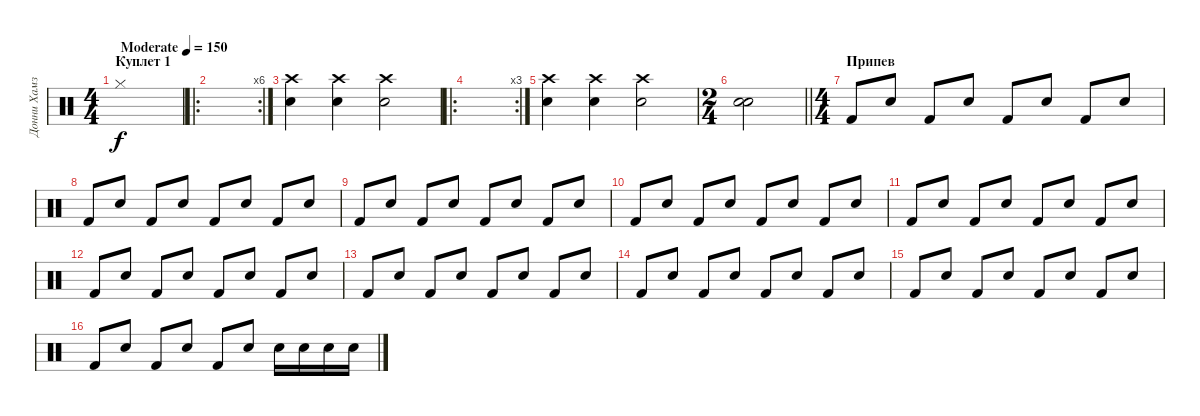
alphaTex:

\track ("Донни Хамзик" "Донни Хамз") {instrument percussion}
\staff {score}
\articulation defaults
\ts (4 4)
\section ("" "Куплет 1")
\tempo (150 "Moderate")
\clef neutral
\ks c "Hi-Hat (closed)".1{dy f}
|
\ro
\rc 6
|
("Crash high (hit)" "Snare (hit) 2").4 ("Crash high (hit)" "Snare (hit) 2").4 ("Crash high (hit)" "Snare (hit) 2").2 |
\ro
\rc 3
|
("Crash high (hit)" "Snare (hit) 2").4 ("Crash high (hit)" "Snare (hit) 2").4 ("Crash high (hit)" "Snare (hit) 2").2 |
\ts (2 4)
\barLineRight lightlight
("Electric Snare (hit)" "Electric Snare (hit)").2 |
\ts (4 4)
\section ("" "Припев")
"Kick (hit) 2".8 "Snare (hit) 2".8 "Kick (hit) 2".8 "Snare (hit) 2".8 "Kick (hit) 2".8 "Snare (hit) 2".8 "Kick (hit) 2".8 "Snare (hit) 2".8 |
"Kick (hit) 2".8 "Snare (hit) 2".8 "Kick (hit) 2".8 "Snare (hit) 2".8 "Kick (hit) 2".8 "Snare (hit) 2".8 "Kick (hit) 2".8 "Snare (hit) 2".8 |
"Kick (hit) 2".8 "Snare (hit) 2".8 "Kick (hit) 2".8 "Snare (hit) 2".8 "Kick (hit) 2".8 "Snare (hit) 2".8 "Kick (hit) 2".8 "Snare (hit) 2".8 |
"Kick (hit) 2".8 "Snare (hit) 2".8 "Kick (hit) 2".8 "Snare (hit) 2".8 "Kick (hit) 2".8 "Snare (hit) 2".8 "Kick (hit) 2".8 "Snare (hit) 2".8 |
"Kick (hit) 2".8 "Snare (hit) 2".8 "Kick (hit) 2".8 "Snare (hit) 2".8 "Kick (hit) 2".8 "Snare (hit) 2".8 "Kick (hit) 2".8 "Snare (hit) 2".8 |
"Kick (hit) 2".8 "Snare (hit) 2".8 "Kick (hit) 2".8 "Snare (hit) 2".8 "Kick (hit) 2".8 "Snare (hit) 2".8 "Kick (hit) 2".8 "Snare (hit) 2".8 |
"Kick (hit) 2".8 "Snare (hit) 2".8 "Kick (hit) 2".8 "Snare (hit) 2".8 "Kick (hit) 2".8 "Snare (hit) 2".8 "Kick (hit) 2".8 "Snare (hit) 2".8 |
"Kick (hit) 2".8 "Snare (hit) 2".8 "Kick (hit) 2".8 "Snare (hit) 2".8 "Kick (hit) 2".8 "Snare (hit) 2".8 "Kick (hit) 2".8 "Snare (hit) 2".8 |
"Kick (hit) 2".8 "Snare (hit) 2".8 "Kick (hit) 2".8 "Snare (hit) 2".8 "Kick (hit) 2".8 "Snare (hit) 2".8 "Kick (hit) 2".8 "Snare (hit) 2".8 |
"Kick (hit) 2".8 "Snare (hit) 2".8 "Kick (hit) 2".8 "Snare (hit) 2".8 "Kick (hit) 2".8 "Snare (hit) 2".8 "Snare (hit) 2".16 "Snare (hit) 2".16 "Snare (hit) 2".16 "Snare (hit) 2".16
